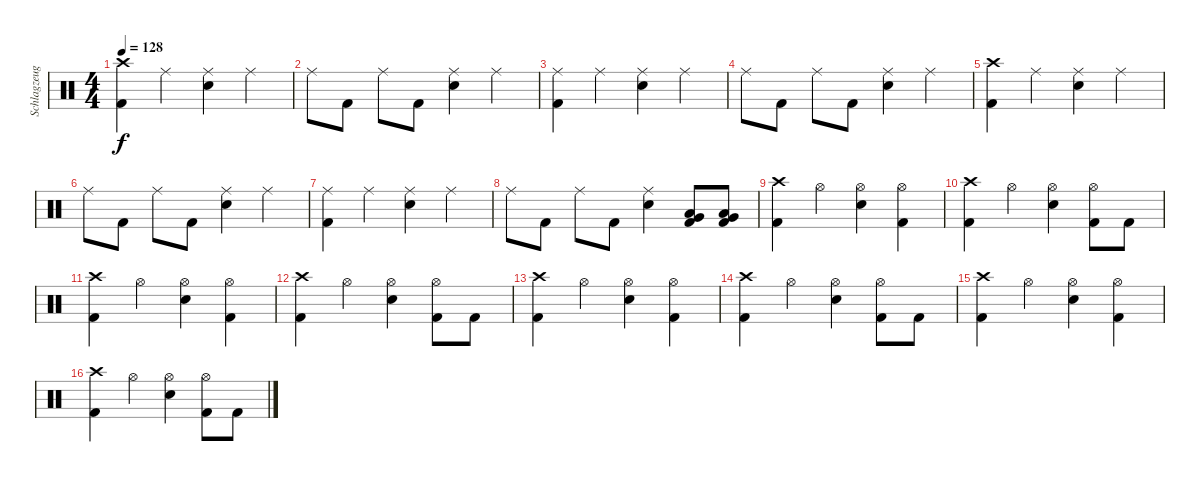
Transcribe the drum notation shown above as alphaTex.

\track ("Schlagzeug" "Schlagzeug") {instrument percussion}
\staff {score}
\articulation defaults
\ts (4 4)
\tempo 128
\clef neutral
\ks c
("Crash high (hit)" "Kick (hit) 2").4{dy f} "Ride (middle)".4 ("Ride (middle)" "Snare (hit) 2").4 "Ride (middle)".4 |
"Ride (middle)".8 "Kick (hit) 2".8 "Ride (middle)".8 "Kick (hit) 2".8 ("Ride (middle)" "Snare (hit) 2").4 "Ride (middle)".4 |
("Ride (middle)" "Kick (hit) 2").4 "Ride (middle)".4 ("Ride (middle)" "Snare (hit) 2").4 "Ride (middle)".4 |
"Ride (middle)".8 "Kick (hit) 2".8 "Ride (middle)".8 "Kick (hit) 2".8 ("Ride (middle)" "Snare (hit) 2").4 "Ride (middle)".4 |
("Crash high (hit)" "Kick (hit) 2").4 "Ride (middle)".4 ("Ride (middle)" "Snare (hit) 2").4 "Ride (middle)".4 |
"Ride (middle)".8 "Kick (hit) 2".8 "Ride (middle)".8 "Kick (hit) 2".8 ("Ride (middle)" "Snare (hit) 2").4 "Ride (middle)".4 |
("Ride (middle)" "Kick (hit) 2").4 "Ride (middle)".4 ("Ride (middle)" "Snare (hit) 2").4 "Ride (middle)".4 |
"Ride (middle)".8 "Kick (hit) 2".8 "Ride (middle)".8 "Kick (hit) 2".8 ("Ride (middle)" "Snare (hit) 2").4 ("Very Low Tom (hit)" "Low Floor Tom (hit)" "Kick (hit) 2").8 ("Very Low Tom (hit)" "Low Floor Tom (hit)" "Kick (hit) 2").8 |
("Crash high (hit)" "Kick (hit) 2").4 "Hi-Hat (open)".4 ("Hi-Hat (open)" "Snare (hit) 2").4 ("Hi-Hat (open)" "Kick (hit) 2").4 |
("Crash high (hit)" "Kick (hit) 2").4 "Hi-Hat (open)".4 ("Hi-Hat (open)" "Snare (hit) 2").4 ("Hi-Hat (open)" "Kick (hit) 2").8 "Kick (hit) 2".8 |
("Crash high (hit)" "Kick (hit) 2").4 "Hi-Hat (open)".4 ("Hi-Hat (open)" "Snare (hit) 2").4 ("Hi-Hat (open)" "Kick (hit) 2").4 |
("Crash high (hit)" "Kick (hit) 2").4 "Hi-Hat (open)".4 ("Hi-Hat (open)" "Snare (hit) 2").4 ("Hi-Hat (open)" "Kick (hit) 2").8 "Kick (hit) 2".8 |
("Crash high (hit)" "Kick (hit) 2").4 "Hi-Hat (open)".4 ("Hi-Hat (open)" "Snare (hit) 2").4 ("Hi-Hat (open)" "Kick (hit) 2").4 |
("Crash high (hit)" "Kick (hit) 2").4 "Hi-Hat (open)".4 ("Hi-Hat (open)" "Snare (hit) 2").4 ("Hi-Hat (open)" "Kick (hit) 2").8 "Kick (hit) 2".8 |
("Crash high (hit)" "Kick (hit) 2").4 "Hi-Hat (open)".4 ("Hi-Hat (open)" "Snare (hit) 2").4 ("Hi-Hat (open)" "Kick (hit) 2").4 |
("Crash high (hit)" "Kick (hit) 2").4 "Hi-Hat (open)".4 ("Hi-Hat (open)" "Snare (hit) 2").4 ("Hi-Hat (open)" "Kick (hit) 2").8 "Kick (hit) 2".8
